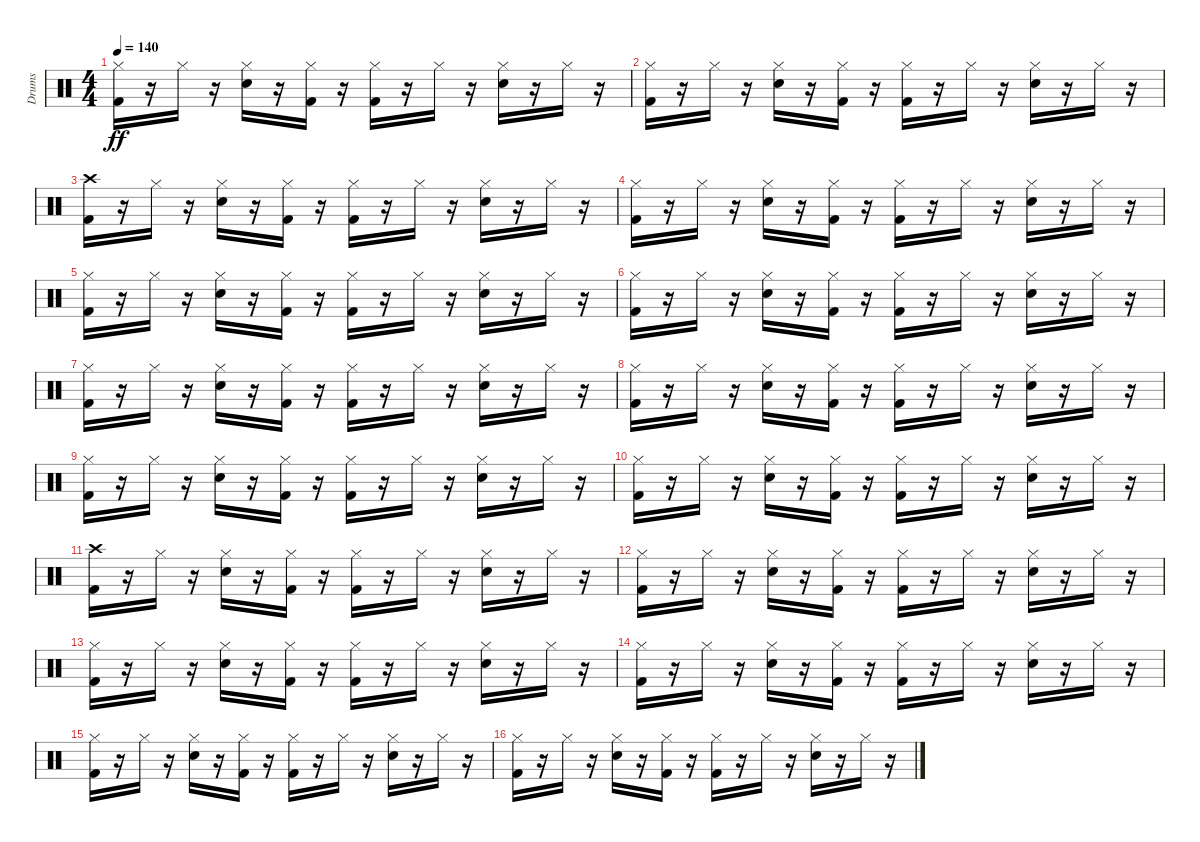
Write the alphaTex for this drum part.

\track ("Drums" "Drums") {instrument percussion}
\staff {score}
\articulation defaults
\ts (4 4)
\tempo 140
\clef neutral
\ks c
("Hi-Hat (closed)" "Kick (hit) 2").16{dy ff} r.16 "Hi-Hat (closed)".16 r.16 ("Hi-Hat (closed)" "Snare (hit) 2").16 r.16 ("Hi-Hat (closed)" "Kick (hit) 2").16 r.16 ("Hi-Hat (closed)" "Kick (hit) 2").16 r.16 "Hi-Hat (closed)".16 r.16 ("Hi-Hat (closed)" "Snare (hit) 2").16 r.16 "Hi-Hat (closed)".16 r.16 |
("Hi-Hat (closed)" "Kick (hit) 2").16 r.16 "Hi-Hat (closed)".16 r.16 ("Hi-Hat (closed)" "Snare (hit) 2").16 r.16 ("Hi-Hat (closed)" "Kick (hit) 2").16 r.16 ("Hi-Hat (closed)" "Kick (hit) 2").16 r.16 "Hi-Hat (closed)".16 r.16 ("Hi-Hat (closed)" "Snare (hit) 2").16 r.16 "Hi-Hat (closed)".16 r.16 |
("Crash high (hit)" "Kick (hit) 2").16 r.16 "Hi-Hat (closed)".16 r.16 ("Hi-Hat (closed)" "Snare (hit) 2").16 r.16 ("Hi-Hat (closed)" "Kick (hit) 2").16 r.16 ("Hi-Hat (closed)" "Kick (hit) 2").16 r.16 "Hi-Hat (closed)".16 r.16 ("Hi-Hat (closed)" "Snare (hit) 2").16 r.16 "Hi-Hat (closed)".16 r.16 |
("Hi-Hat (closed)" "Kick (hit) 2").16 r.16 "Hi-Hat (closed)".16 r.16 ("Hi-Hat (closed)" "Snare (hit) 2").16 r.16 ("Hi-Hat (closed)" "Kick (hit) 2").16 r.16 ("Hi-Hat (closed)" "Kick (hit) 2").16 r.16 "Hi-Hat (closed)".16 r.16 ("Hi-Hat (closed)" "Snare (hit) 2").16 r.16 "Hi-Hat (closed)".16 r.16 |
("Hi-Hat (closed)" "Kick (hit) 2").16 r.16 "Hi-Hat (closed)".16 r.16 ("Hi-Hat (closed)" "Snare (hit) 2").16 r.16 ("Hi-Hat (closed)" "Kick (hit) 2").16 r.16 ("Hi-Hat (closed)" "Kick (hit) 2").16 r.16 "Hi-Hat (closed)".16 r.16 ("Hi-Hat (closed)" "Snare (hit) 2").16 r.16 "Hi-Hat (closed)".16 r.16 |
("Hi-Hat (closed)" "Kick (hit) 2").16 r.16 "Hi-Hat (closed)".16 r.16 ("Hi-Hat (closed)" "Snare (hit) 2").16 r.16 ("Hi-Hat (closed)" "Kick (hit) 2").16 r.16 ("Hi-Hat (closed)" "Kick (hit) 2").16 r.16 "Hi-Hat (closed)".16 r.16 ("Hi-Hat (closed)" "Snare (hit) 2").16 r.16 "Hi-Hat (closed)".16 r.16 |
("Hi-Hat (closed)" "Kick (hit) 2").16 r.16 "Hi-Hat (closed)".16 r.16 ("Hi-Hat (closed)" "Snare (hit) 2").16 r.16 ("Hi-Hat (closed)" "Kick (hit) 2").16 r.16 ("Hi-Hat (closed)" "Kick (hit) 2").16 r.16 "Hi-Hat (closed)".16 r.16 ("Hi-Hat (closed)" "Snare (hit) 2").16 r.16 "Hi-Hat (closed)".16 r.16 |
("Hi-Hat (closed)" "Kick (hit) 2").16 r.16 "Hi-Hat (closed)".16 r.16 ("Hi-Hat (closed)" "Snare (hit) 2").16 r.16 ("Hi-Hat (closed)" "Kick (hit) 2").16 r.16 ("Hi-Hat (closed)" "Kick (hit) 2").16 r.16 "Hi-Hat (closed)".16 r.16 ("Hi-Hat (closed)" "Snare (hit) 2").16 r.16 "Hi-Hat (closed)".16 r.16 |
("Hi-Hat (closed)" "Kick (hit) 2").16 r.16 "Hi-Hat (closed)".16 r.16 ("Hi-Hat (closed)" "Snare (hit) 2").16 r.16 ("Hi-Hat (closed)" "Kick (hit) 2").16 r.16 ("Hi-Hat (closed)" "Kick (hit) 2").16 r.16 "Hi-Hat (closed)".16 r.16 ("Hi-Hat (closed)" "Snare (hit) 2").16 r.16 "Hi-Hat (closed)".16 r.16 |
("Hi-Hat (closed)" "Kick (hit) 2").16 r.16 "Hi-Hat (closed)".16 r.16 ("Hi-Hat (closed)" "Snare (hit) 2").16 r.16 ("Hi-Hat (closed)" "Kick (hit) 2").16 r.16 ("Hi-Hat (closed)" "Kick (hit) 2").16 r.16 "Hi-Hat (closed)".16 r.16 ("Hi-Hat (closed)" "Snare (hit) 2").16 r.16 "Hi-Hat (closed)".16 r.16 |
("Crash high (hit)" "Kick (hit) 2").16 r.16 "Hi-Hat (closed)".16 r.16 ("Hi-Hat (closed)" "Snare (hit) 2").16 r.16 ("Hi-Hat (closed)" "Kick (hit) 2").16 r.16 ("Hi-Hat (closed)" "Kick (hit) 2").16 r.16 "Hi-Hat (closed)".16 r.16 ("Hi-Hat (closed)" "Snare (hit) 2").16 r.16 "Hi-Hat (closed)".16 r.16 |
("Hi-Hat (closed)" "Kick (hit) 2").16 r.16 "Hi-Hat (closed)".16 r.16 ("Hi-Hat (closed)" "Snare (hit) 2").16 r.16 ("Hi-Hat (closed)" "Kick (hit) 2").16 r.16 ("Hi-Hat (closed)" "Kick (hit) 2").16 r.16 "Hi-Hat (closed)".16 r.16 ("Hi-Hat (closed)" "Snare (hit) 2").16 r.16 "Hi-Hat (closed)".16 r.16 |
("Hi-Hat (closed)" "Kick (hit) 2").16 r.16 "Hi-Hat (closed)".16 r.16 ("Hi-Hat (closed)" "Snare (hit) 2").16 r.16 ("Hi-Hat (closed)" "Kick (hit) 2").16 r.16 ("Hi-Hat (closed)" "Kick (hit) 2").16 r.16 "Hi-Hat (closed)".16 r.16 ("Hi-Hat (closed)" "Snare (hit) 2").16 r.16 "Hi-Hat (closed)".16 r.16 |
("Hi-Hat (closed)" "Kick (hit) 2").16 r.16 "Hi-Hat (closed)".16 r.16 ("Hi-Hat (closed)" "Snare (hit) 2").16 r.16 ("Hi-Hat (closed)" "Kick (hit) 2").16 r.16 ("Hi-Hat (closed)" "Kick (hit) 2").16 r.16 "Hi-Hat (closed)".16 r.16 ("Hi-Hat (closed)" "Snare (hit) 2").16 r.16 "Hi-Hat (closed)".16 r.16 |
("Hi-Hat (closed)" "Kick (hit) 2").16 r.16 "Hi-Hat (closed)".16 r.16 ("Hi-Hat (closed)" "Snare (hit) 2").16 r.16 ("Hi-Hat (closed)" "Kick (hit) 2").16 r.16 ("Hi-Hat (closed)" "Kick (hit) 2").16 r.16 "Hi-Hat (closed)".16 r.16 ("Hi-Hat (closed)" "Snare (hit) 2").16 r.16 "Hi-Hat (closed)".16 r.16 |
("Hi-Hat (closed)" "Kick (hit) 2").16 r.16 "Hi-Hat (closed)".16 r.16 ("Hi-Hat (closed)" "Snare (hit) 2").16 r.16 ("Hi-Hat (closed)" "Kick (hit) 2").16 r.16 ("Hi-Hat (closed)" "Kick (hit) 2").16 r.16 "Hi-Hat (closed)".16 r.16 ("Hi-Hat (closed)" "Snare (hit) 2").16 r.16 "Hi-Hat (closed)".16 r.16
